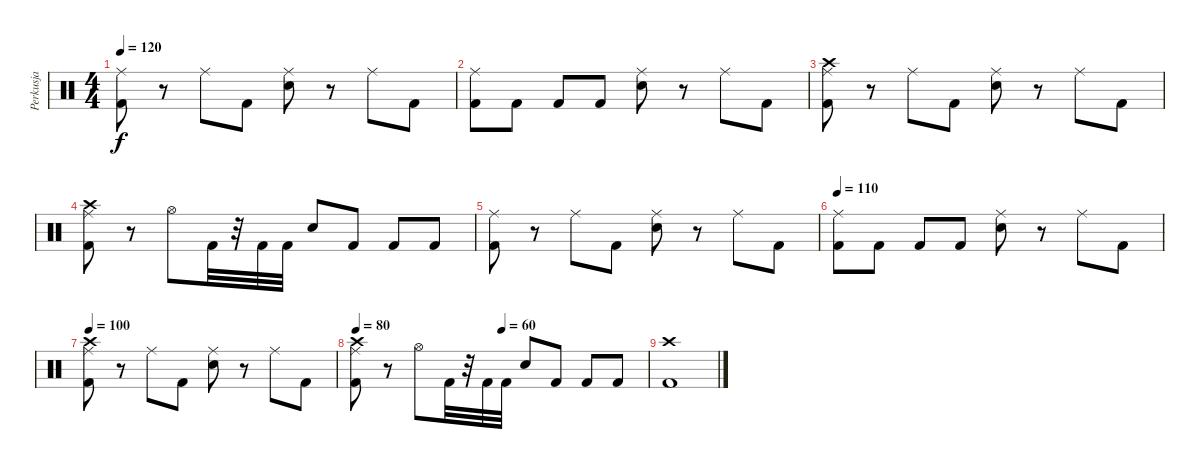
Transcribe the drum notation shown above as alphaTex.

\track ("Perkusja" "Perkusja") {instrument percussion}
\staff {score}
\articulation defaults
\ts (4 4)
\tempo 120
\clef neutral
\ks c
("Ride (middle)" "Kick (hit) 2").8{dy f} r.8 "Ride (middle)".8 "Kick (hit) 2".8 ("Ride (middle)" "Snare (hit) 2").8 r.8 "Ride (middle)".8 "Kick (hit) 2".8 |
("Ride (middle)" "Kick (hit) 2").8 "Kick (hit) 2".8 "Kick (hit) 2".8 "Kick (hit) 2".8 ("Ride (middle)" "Snare (hit) 2").8 r.8 "Ride (middle)".8 "Kick (hit) 2".8 |
("Ride (middle)" "Crash high (hit)" "Kick (hit) 2").8 r.8 "Ride (middle)".8 "Kick (hit) 2".8 ("Ride (middle)" "Snare (hit) 2").8 r.8 "Ride (middle)".8 "Kick (hit) 2".8 |
("Ride (middle)" "Crash high (hit)" "Kick (hit) 2").8 r.8 "Hi-Hat (open)".8 "Kick (hit) 2".32 r.32 "Kick (hit) 2".32 "Kick (hit) 2".32 "Snare (hit) 2".8 "Kick (hit) 2".8 "Kick (hit) 2".8 "Kick (hit) 2".8 |
("Ride (middle)" "Kick (hit) 2").8 r.8 "Ride (middle)".8 "Kick (hit) 2".8 ("Ride (middle)" "Snare (hit) 2").8 r.8 "Ride (middle)".8 "Kick (hit) 2".8 |
\tempo 110
("Ride (middle)" "Kick (hit) 2").8 "Kick (hit) 2".8 "Kick (hit) 2".8 "Kick (hit) 2".8 ("Ride (middle)" "Snare (hit) 2").8 r.8 "Ride (middle)".8 "Kick (hit) 2".8 |
\tempo 100
("Ride (middle)" "Crash high (hit)" "Kick (hit) 2").8 r.8 "Ride (middle)".8 "Kick (hit) 2".8 ("Ride (middle)" "Snare (hit) 2").8 r.8 "Ride (middle)".8 "Kick (hit) 2".8 |
\tempo 80
\tempo (60 0.5)
("Ride (middle)" "Crash high (hit)" "Kick (hit) 2").8 r.8 "Hi-Hat (open)".8 "Kick (hit) 2".32 r.32 "Kick (hit) 2".32 "Kick (hit) 2".32 "Snare (hit) 2".8 "Kick (hit) 2".8 "Kick (hit) 2".8 "Kick (hit) 2".8 |
("Crash high (hit)" "Kick (hit) 2").1
